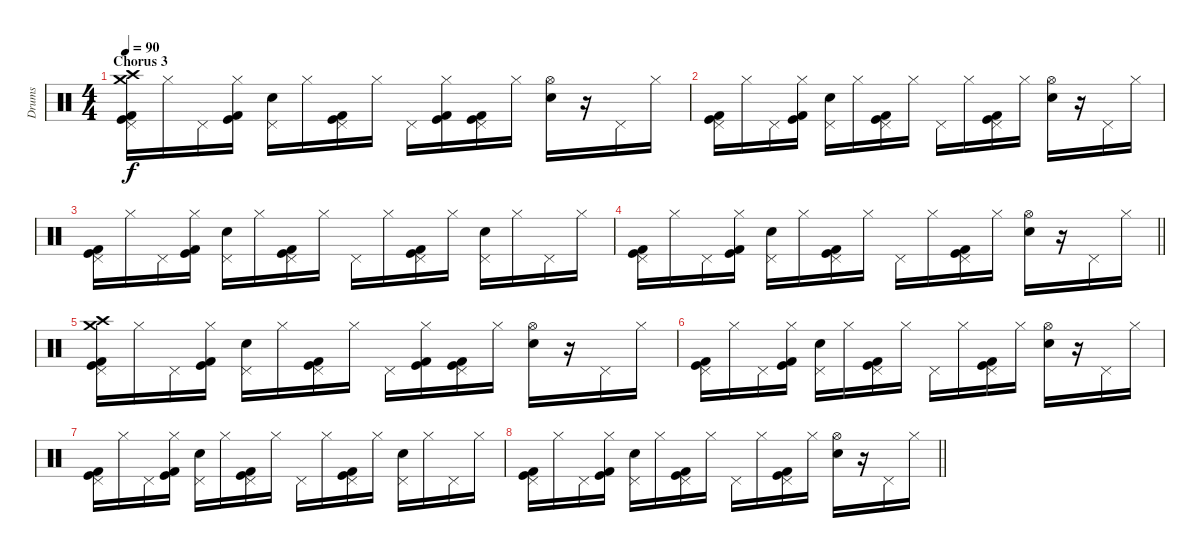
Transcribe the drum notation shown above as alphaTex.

\track ("Drums" "Drums") {instrument percussion}
\staff {score}
\articulation defaults
\ts (4 4)
\section ("" "Chorus 3")
\tempo 90
\clef neutral
\ks c
("Crash high (hit)" "Pedal Hi-Hat (hit)" "Crash medium (hit)" "Kick (hit)" "Kick (hit) 2").16{dy f volume 16} "Hi-Hat (closed)".16 "Pedal Hi-Hat (hit)".16 ("Hi-Hat (closed)" "Kick (hit)" "Kick (hit) 2").16 ("Pedal Hi-Hat (hit)" "Electric Snare (hit)").16 "Hi-Hat (closed)".16 ("Pedal Hi-Hat (hit)" "Kick (hit)" "Kick (hit) 2").16 "Hi-Hat (closed)".16 "Pedal Hi-Hat (hit)".16 ("Hi-Hat (closed)" "Kick (hit)" "Kick (hit) 2").16 ("Pedal Hi-Hat (hit)" "Kick (hit)" "Kick (hit) 2").16 "Hi-Hat (closed)".16 ("Hi-Hat (open)" "Electric Snare (hit)").16 r.16 "Pedal Hi-Hat (hit)".16 "Hi-Hat (closed)".16 |
("Pedal Hi-Hat (hit)" "Kick (hit)" "Kick (hit) 2").16 "Hi-Hat (closed)".16 "Pedal Hi-Hat (hit)".16 ("Hi-Hat (closed)" "Kick (hit)" "Kick (hit) 2").16 ("Pedal Hi-Hat (hit)" "Electric Snare (hit)").16 "Hi-Hat (closed)".16 ("Pedal Hi-Hat (hit)" "Kick (hit)" "Kick (hit) 2").16 "Hi-Hat (closed)".16 "Pedal Hi-Hat (hit)".16 "Hi-Hat (closed)".16 ("Pedal Hi-Hat (hit)" "Kick (hit)" "Kick (hit) 2").16 "Hi-Hat (closed)".16 ("Hi-Hat (open)" "Electric Snare (hit)").16 r.16 "Pedal Hi-Hat (hit)".16 "Hi-Hat (closed)".16 |
("Pedal Hi-Hat (hit)" "Kick (hit)" "Kick (hit) 2").16 "Hi-Hat (closed)".16 "Pedal Hi-Hat (hit)".16 ("Hi-Hat (closed)" "Kick (hit)" "Kick (hit) 2").16 ("Pedal Hi-Hat (hit)" "Electric Snare (hit)").16 "Hi-Hat (closed)".16 ("Pedal Hi-Hat (hit)" "Kick (hit)" "Kick (hit) 2").16 "Hi-Hat (closed)".16 "Pedal Hi-Hat (hit)".16 "Hi-Hat (closed)".16 ("Pedal Hi-Hat (hit)" "Kick (hit)" "Kick (hit) 2").16 "Hi-Hat (closed)".16 ("Pedal Hi-Hat (hit)" "Electric Snare (hit)").16 "Hi-Hat (closed)".16 "Pedal Hi-Hat (hit)".16 "Hi-Hat (closed)".16 |
\barLineRight lightlight
("Pedal Hi-Hat (hit)" "Kick (hit)" "Kick (hit) 2").16 "Hi-Hat (closed)".16 "Pedal Hi-Hat (hit)".16 ("Hi-Hat (closed)" "Kick (hit)" "Kick (hit) 2").16 ("Pedal Hi-Hat (hit)" "Electric Snare (hit)").16 "Hi-Hat (closed)".16 ("Pedal Hi-Hat (hit)" "Kick (hit)" "Kick (hit) 2").16 "Hi-Hat (closed)".16 "Pedal Hi-Hat (hit)".16 "Hi-Hat (closed)".16 ("Pedal Hi-Hat (hit)" "Kick (hit)" "Kick (hit) 2").16 "Hi-Hat (closed)".16 ("Hi-Hat (open)" "Electric Snare (hit)").16 r.16 "Pedal Hi-Hat (hit)".16 "Hi-Hat (closed)".16 |
("Crash high (hit)" "Pedal Hi-Hat (hit)" "Crash medium (hit)" "Kick (hit)" "Kick (hit) 2").16 "Hi-Hat (closed)".16 "Pedal Hi-Hat (hit)".16 ("Hi-Hat (closed)" "Kick (hit)" "Kick (hit) 2").16 ("Pedal Hi-Hat (hit)" "Electric Snare (hit)").16 "Hi-Hat (closed)".16 ("Pedal Hi-Hat (hit)" "Kick (hit)" "Kick (hit) 2").16 "Hi-Hat (closed)".16 "Pedal Hi-Hat (hit)".16 ("Hi-Hat (closed)" "Kick (hit)" "Kick (hit) 2").16 ("Pedal Hi-Hat (hit)" "Kick (hit)" "Kick (hit) 2").16 "Hi-Hat (closed)".16 ("Hi-Hat (open)" "Electric Snare (hit)").16 r.16 "Pedal Hi-Hat (hit)".16 "Hi-Hat (closed)".16 |
("Pedal Hi-Hat (hit)" "Kick (hit)" "Kick (hit) 2").16 "Hi-Hat (closed)".16 "Pedal Hi-Hat (hit)".16 ("Hi-Hat (closed)" "Kick (hit)" "Kick (hit) 2").16 ("Pedal Hi-Hat (hit)" "Electric Snare (hit)").16 "Hi-Hat (closed)".16 ("Pedal Hi-Hat (hit)" "Kick (hit)" "Kick (hit) 2").16 "Hi-Hat (closed)".16 "Pedal Hi-Hat (hit)".16 "Hi-Hat (closed)".16 ("Pedal Hi-Hat (hit)" "Kick (hit)" "Kick (hit) 2").16 "Hi-Hat (closed)".16 ("Hi-Hat (open)" "Electric Snare (hit)").16 r.16 "Pedal Hi-Hat (hit)".16 "Hi-Hat (closed)".16 |
("Pedal Hi-Hat (hit)" "Kick (hit)" "Kick (hit) 2").16 "Hi-Hat (closed)".16 "Pedal Hi-Hat (hit)".16 ("Hi-Hat (closed)" "Kick (hit)" "Kick (hit) 2").16 ("Pedal Hi-Hat (hit)" "Electric Snare (hit)").16 "Hi-Hat (closed)".16 ("Pedal Hi-Hat (hit)" "Kick (hit)" "Kick (hit) 2").16 "Hi-Hat (closed)".16 "Pedal Hi-Hat (hit)".16 "Hi-Hat (closed)".16 ("Pedal Hi-Hat (hit)" "Kick (hit)" "Kick (hit) 2").16 "Hi-Hat (closed)".16 ("Pedal Hi-Hat (hit)" "Electric Snare (hit)").16 "Hi-Hat (closed)".16 "Pedal Hi-Hat (hit)".16 "Hi-Hat (closed)".16 |
\barLineRight lightlight
("Pedal Hi-Hat (hit)" "Kick (hit)" "Kick (hit) 2").16 "Hi-Hat (closed)".16 "Pedal Hi-Hat (hit)".16 ("Hi-Hat (closed)" "Kick (hit)" "Kick (hit) 2").16 ("Pedal Hi-Hat (hit)" "Electric Snare (hit)").16 "Hi-Hat (closed)".16 ("Pedal Hi-Hat (hit)" "Kick (hit)" "Kick (hit) 2").16 "Hi-Hat (closed)".16 "Pedal Hi-Hat (hit)".16 "Hi-Hat (closed)".16 ("Pedal Hi-Hat (hit)" "Kick (hit)" "Kick (hit) 2").16 "Hi-Hat (closed)".16 ("Hi-Hat (open)" "Electric Snare (hit)").16 r.16 "Pedal Hi-Hat (hit)".16 "Hi-Hat (closed)".16
